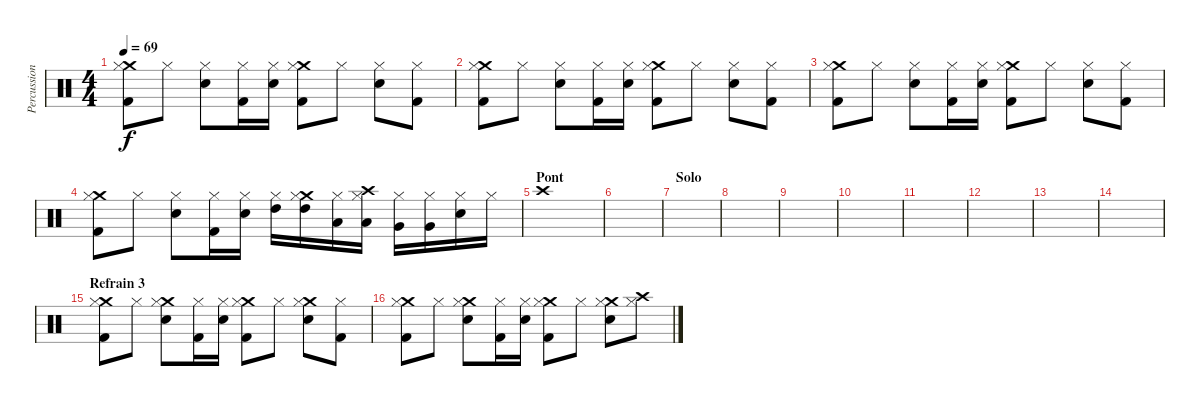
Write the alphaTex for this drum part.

\track ("Percussions" "Percussion") {instrument percussion}
\staff {score}
\articulation defaults
\ts (4 4)
\tempo 69
\clef neutral
\ks c
("Crash medium (hit)" "Kick (hit) 2" "Hi-Hat (closed)").8{dy f} "Hi-Hat (closed)".8 ("Electric Snare (hit)" "Hi-Hat (closed)").8 ("Kick (hit) 2" "Hi-Hat (closed)").16 ("Electric Snare (hit)" "Hi-Hat (closed)").16 ("Crash medium (hit)" "Kick (hit) 2" "Hi-Hat (closed)").8 "Hi-Hat (closed)".8 ("Electric Snare (hit)" "Hi-Hat (closed)").8 ("Kick (hit) 2" "Hi-Hat (closed)").8 |
("Crash medium (hit)" "Kick (hit) 2" "Hi-Hat (closed)").8 "Hi-Hat (closed)".8 ("Electric Snare (hit)" "Hi-Hat (closed)").8 ("Kick (hit) 2" "Hi-Hat (closed)").16 ("Electric Snare (hit)" "Hi-Hat (closed)").16 ("Crash medium (hit)" "Kick (hit) 2" "Hi-Hat (closed)").8 "Hi-Hat (closed)".8 ("Electric Snare (hit)" "Hi-Hat (closed)").8 ("Kick (hit) 2" "Hi-Hat (closed)").8 |
("Crash medium (hit)" "Kick (hit) 2" "Hi-Hat (closed)").8 "Hi-Hat (closed)".8 ("Electric Snare (hit)" "Hi-Hat (closed)").8 ("Kick (hit) 2" "Hi-Hat (closed)").16 ("Electric Snare (hit)" "Hi-Hat (closed)").16 ("Crash medium (hit)" "Kick (hit) 2" "Hi-Hat (closed)").8 "Hi-Hat (closed)".8 ("Electric Snare (hit)" "Hi-Hat (closed)").8 ("Kick (hit) 2" "Hi-Hat (closed)").8 |
("Crash medium (hit)" "Kick (hit) 2" "Hi-Hat (closed)").8 "Hi-Hat (closed)".8 ("Electric Snare (hit)" "Hi-Hat (closed)").8 ("Kick (hit) 2" "Hi-Hat (closed)").16 ("Electric Snare (hit)" "Hi-Hat (closed)").16 ("High Tom (hit)" "Hi-Hat (closed)").16 ("Crash medium (hit)" "High Tom (hit)" "Hi-Hat (closed)").16 ("Low Tom (hit)" "Hi-Hat (closed)").16 ("Crash high (hit)" "Low Tom (hit)" "Hi-Hat (closed)").16 ("Very Low Tom (hit)" "Hi-Hat (closed)").16 ("Very Low Tom (hit)" "Hi-Hat (closed)").16 ("Electric Snare (hit)" "Hi-Hat (closed)").16 "Hi-Hat (closed)".16 |
\section ("" "Pont")
"Crash high (hit)".1 |
|
\section ("" "Solo")
|
|
|
|
|
|
|
|
\section ("" "Refrain 3")
("Crash medium (hit)" "Kick (hit) 2" "Hi-Hat (closed)").8 "Hi-Hat (closed)".8 ("Crash medium (hit)" "Electric Snare (hit)" "Hi-Hat (closed)").8 ("Kick (hit) 2" "Hi-Hat (closed)").16 ("Electric Snare (hit)" "Hi-Hat (closed)").16 ("Crash medium (hit)" "Kick (hit) 2" "Hi-Hat (closed)").8 "Hi-Hat (closed)".8 ("Crash medium (hit)" "Electric Snare (hit)" "Hi-Hat (closed)").8 ("Kick (hit) 2" "Hi-Hat (closed)").8 |
("Crash medium (hit)" "Kick (hit) 2" "Hi-Hat (closed)").8 "Hi-Hat (closed)".8 ("Crash medium (hit)" "Electric Snare (hit)" "Hi-Hat (closed)").8 ("Kick (hit) 2" "Hi-Hat (closed)").16 ("Electric Snare (hit)" "Hi-Hat (closed)").16 ("Crash medium (hit)" "Kick (hit) 2" "Hi-Hat (closed)").8 "Hi-Hat (closed)".8 ("Crash medium (hit)" "Electric Snare (hit)" "Hi-Hat (closed)").8 ("Crash high (hit)" "Hi-Hat (closed)").8
